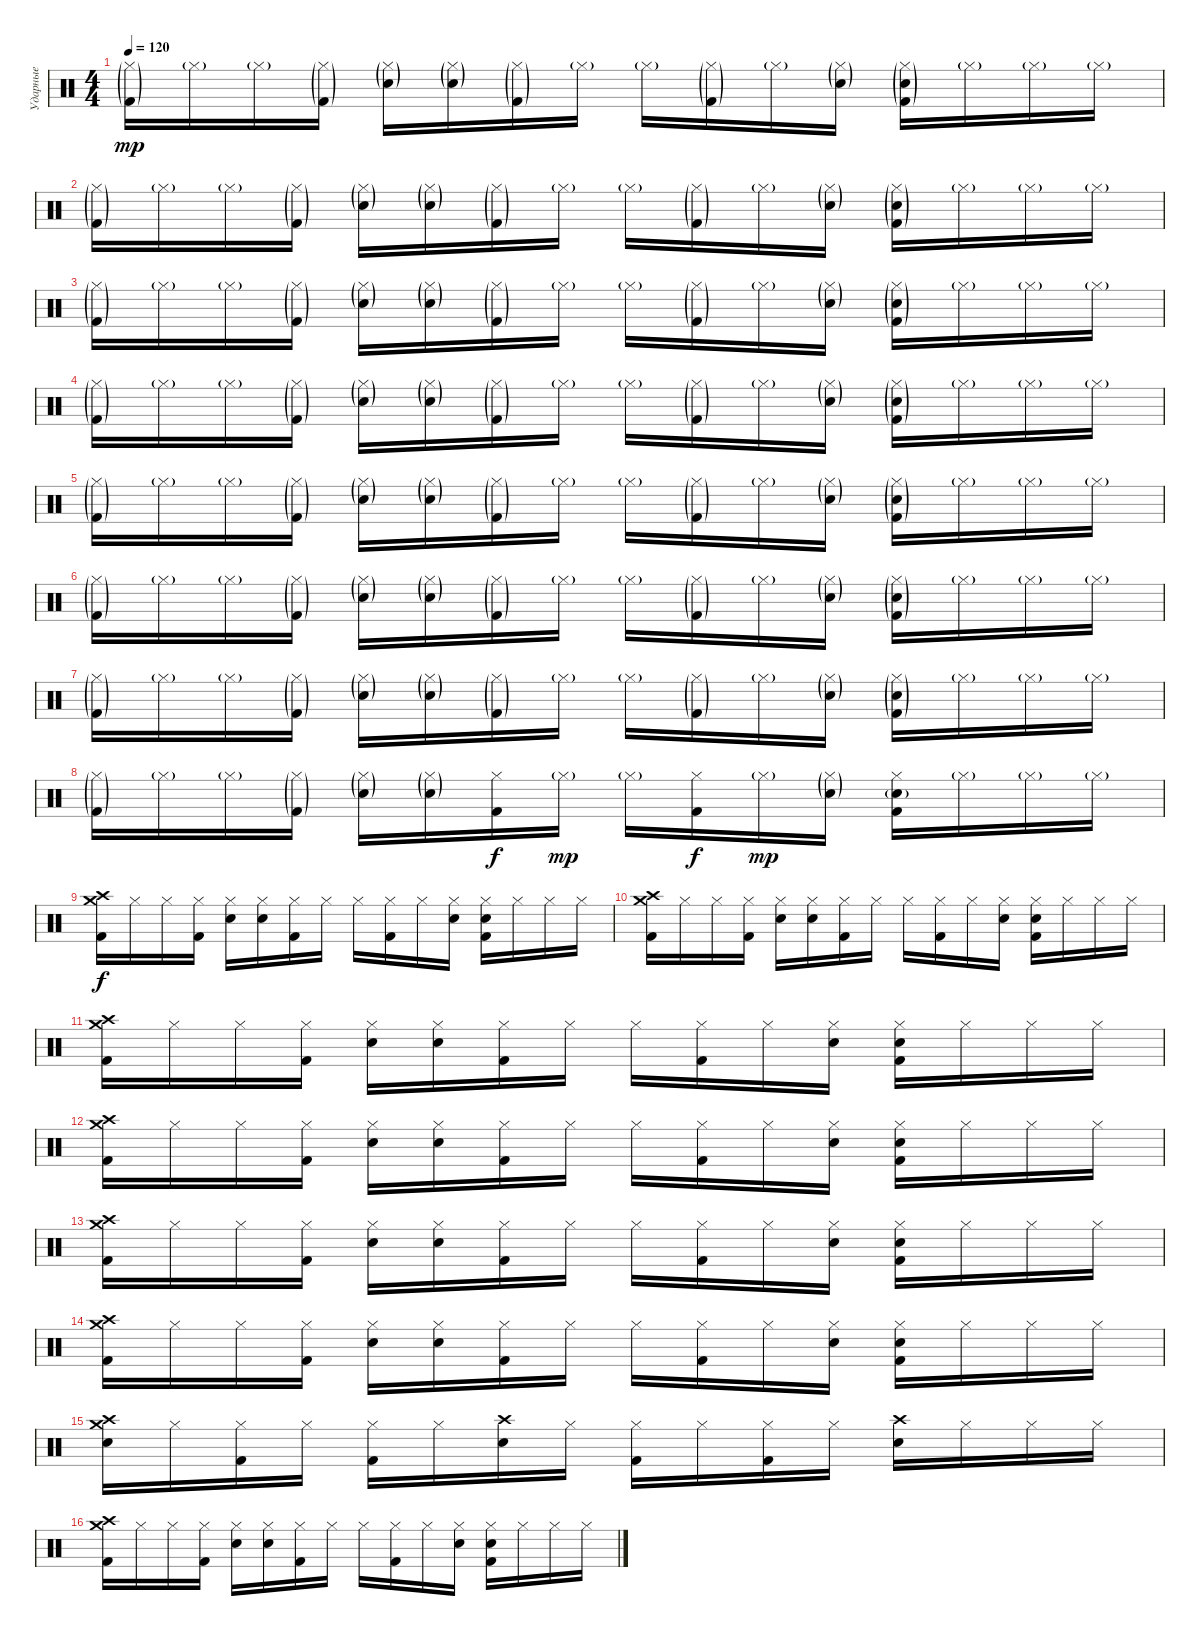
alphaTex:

\track ("Ударные" "Ударные") {instrument percussion}
\staff {score}
\articulation defaults
\ts (4 4)
\tempo 120
\clef neutral
\ks c
("Kick (hit) 2"{g} "Hi-Hat (closed)"{g}).16{dy mp} "Hi-Hat (closed)"{g}.16 "Hi-Hat (closed)"{g}.16 ("Kick (hit) 2"{g} "Hi-Hat (closed)"{g}).16 ("Hi-Hat (closed)"{g} "Electric Snare (hit)"{g}).16 ("Hi-Hat (closed)"{g} "Electric Snare (hit)"{g}).16 ("Kick (hit) 2"{g} "Hi-Hat (closed)"{g}).16 "Hi-Hat (closed)"{g}.16 "Hi-Hat (closed)"{g}.16 ("Kick (hit) 2"{g} "Hi-Hat (closed)"{g}).16 "Hi-Hat (closed)"{g}.16 ("Hi-Hat (closed)"{g} "Electric Snare (hit)"{g}).16 ("Kick (hit) 2"{g} "Hi-Hat (closed)"{g} "Electric Snare (hit)"{g}).16 "Hi-Hat (closed)"{g}.16 "Hi-Hat (closed)"{g}.16 "Hi-Hat (closed)"{g}.16 |
("Kick (hit) 2"{g} "Hi-Hat (closed)"{g}).16 "Hi-Hat (closed)"{g}.16 "Hi-Hat (closed)"{g}.16 ("Kick (hit) 2"{g} "Hi-Hat (closed)"{g}).16 ("Hi-Hat (closed)"{g} "Electric Snare (hit)"{g}).16 ("Hi-Hat (closed)"{g} "Electric Snare (hit)"{g}).16 ("Kick (hit) 2"{g} "Hi-Hat (closed)"{g}).16 "Hi-Hat (closed)"{g}.16 "Hi-Hat (closed)"{g}.16 ("Kick (hit) 2"{g} "Hi-Hat (closed)"{g}).16 "Hi-Hat (closed)"{g}.16 ("Hi-Hat (closed)"{g} "Electric Snare (hit)"{g}).16 ("Kick (hit) 2"{g} "Hi-Hat (closed)"{g} "Electric Snare (hit)"{g}).16 "Hi-Hat (closed)"{g}.16 "Hi-Hat (closed)"{g}.16 "Hi-Hat (closed)"{g}.16 |
("Kick (hit) 2"{g} "Hi-Hat (closed)"{g}).16 "Hi-Hat (closed)"{g}.16 "Hi-Hat (closed)"{g}.16 ("Kick (hit) 2"{g} "Hi-Hat (closed)"{g}).16 ("Hi-Hat (closed)"{g} "Electric Snare (hit)"{g}).16 ("Hi-Hat (closed)"{g} "Electric Snare (hit)"{g}).16 ("Kick (hit) 2"{g} "Hi-Hat (closed)"{g}).16 "Hi-Hat (closed)"{g}.16 "Hi-Hat (closed)"{g}.16 ("Kick (hit) 2"{g} "Hi-Hat (closed)"{g}).16 "Hi-Hat (closed)"{g}.16 ("Hi-Hat (closed)"{g} "Electric Snare (hit)"{g}).16 ("Kick (hit) 2"{g} "Hi-Hat (closed)"{g} "Electric Snare (hit)"{g}).16 "Hi-Hat (closed)"{g}.16 "Hi-Hat (closed)"{g}.16 "Hi-Hat (closed)"{g}.16 |
("Kick (hit) 2"{g} "Hi-Hat (closed)"{g}).16 "Hi-Hat (closed)"{g}.16 "Hi-Hat (closed)"{g}.16 ("Kick (hit) 2"{g} "Hi-Hat (closed)"{g}).16 ("Hi-Hat (closed)"{g} "Electric Snare (hit)"{g}).16 ("Hi-Hat (closed)"{g} "Electric Snare (hit)"{g}).16 ("Kick (hit) 2"{g} "Hi-Hat (closed)"{g}).16 "Hi-Hat (closed)"{g}.16 "Hi-Hat (closed)"{g}.16 ("Kick (hit) 2"{g} "Hi-Hat (closed)"{g}).16 "Hi-Hat (closed)"{g}.16 ("Hi-Hat (closed)"{g} "Electric Snare (hit)"{g}).16 ("Kick (hit) 2"{g} "Hi-Hat (closed)"{g} "Electric Snare (hit)"{g}).16 "Hi-Hat (closed)"{g}.16 "Hi-Hat (closed)"{g}.16 "Hi-Hat (closed)"{g}.16 |
("Kick (hit) 2"{g} "Hi-Hat (closed)"{g}).16 "Hi-Hat (closed)"{g}.16 "Hi-Hat (closed)"{g}.16 ("Kick (hit) 2"{g} "Hi-Hat (closed)"{g}).16 ("Hi-Hat (closed)"{g} "Electric Snare (hit)"{g}).16 ("Hi-Hat (closed)"{g} "Electric Snare (hit)"{g}).16 ("Kick (hit) 2"{g} "Hi-Hat (closed)"{g}).16 "Hi-Hat (closed)"{g}.16 "Hi-Hat (closed)"{g}.16 ("Kick (hit) 2"{g} "Hi-Hat (closed)"{g}).16 "Hi-Hat (closed)"{g}.16 ("Hi-Hat (closed)"{g} "Electric Snare (hit)"{g}).16 ("Kick (hit) 2"{g} "Hi-Hat (closed)"{g} "Electric Snare (hit)"{g}).16 "Hi-Hat (closed)"{g}.16 "Hi-Hat (closed)"{g}.16 "Hi-Hat (closed)"{g}.16 |
("Kick (hit) 2"{g} "Hi-Hat (closed)"{g}).16 "Hi-Hat (closed)"{g}.16 "Hi-Hat (closed)"{g}.16 ("Kick (hit) 2"{g} "Hi-Hat (closed)"{g}).16 ("Hi-Hat (closed)"{g} "Electric Snare (hit)"{g}).16 ("Hi-Hat (closed)"{g} "Electric Snare (hit)"{g}).16 ("Kick (hit) 2"{g} "Hi-Hat (closed)"{g}).16 "Hi-Hat (closed)"{g}.16 "Hi-Hat (closed)"{g}.16 ("Kick (hit) 2"{g} "Hi-Hat (closed)"{g}).16 "Hi-Hat (closed)"{g}.16 ("Hi-Hat (closed)"{g} "Electric Snare (hit)"{g}).16 ("Kick (hit) 2"{g} "Hi-Hat (closed)"{g} "Electric Snare (hit)"{g}).16 "Hi-Hat (closed)"{g}.16 "Hi-Hat (closed)"{g}.16 "Hi-Hat (closed)"{g}.16 |
("Kick (hit) 2"{g} "Hi-Hat (closed)"{g}).16 "Hi-Hat (closed)"{g}.16 "Hi-Hat (closed)"{g}.16 ("Kick (hit) 2"{g} "Hi-Hat (closed)"{g}).16 ("Hi-Hat (closed)"{g} "Electric Snare (hit)"{g}).16 ("Hi-Hat (closed)"{g} "Electric Snare (hit)"{g}).16 ("Kick (hit) 2"{g} "Hi-Hat (closed)"{g}).16 "Hi-Hat (closed)"{g}.16 "Hi-Hat (closed)"{g}.16 ("Kick (hit) 2"{g} "Hi-Hat (closed)"{g}).16 "Hi-Hat (closed)"{g}.16 ("Hi-Hat (closed)"{g} "Electric Snare (hit)"{g}).16 ("Kick (hit) 2"{g} "Hi-Hat (closed)"{g} "Electric Snare (hit)"{g}).16 "Hi-Hat (closed)"{g}.16 "Hi-Hat (closed)"{g}.16 "Hi-Hat (closed)"{g}.16 |
("Kick (hit) 2"{g} "Hi-Hat (closed)"{g}).16 "Hi-Hat (closed)"{g}.16 "Hi-Hat (closed)"{g}.16 ("Kick (hit) 2"{g} "Hi-Hat (closed)"{g}).16 ("Hi-Hat (closed)"{g} "Electric Snare (hit)"{g}).16 ("Hi-Hat (closed)"{g} "Electric Snare (hit)"{g}).16 ("Kick (hit) 2" "Hi-Hat (closed)").16{dy f} "Hi-Hat (closed)"{g}.16{dy mp} "Hi-Hat (closed)"{g}.16 ("Kick (hit) 2" "Hi-Hat (closed)").16{dy f} "Hi-Hat (closed)"{g}.16{dy mp} ("Hi-Hat (closed)"{g} "Electric Snare (hit)"{g}).16 ("Kick (hit) 2" "Hi-Hat (closed)" "Electric Snare (hit)"{g}).16 "Hi-Hat (closed)"{g}.16 "Hi-Hat (closed)"{g}.16 "Hi-Hat (closed)"{g}.16 |
("Kick (hit) 2" "Crash high (hit)" "Crash medium (hit)").16{dy f} "Hi-Hat (closed)".16 "Hi-Hat (closed)".16 ("Kick (hit) 2" "Hi-Hat (closed)").16 ("Hi-Hat (closed)" "Electric Snare (hit)").16 ("Hi-Hat (closed)" "Electric Snare (hit)").16 ("Kick (hit) 2" "Hi-Hat (closed)").16 "Hi-Hat (closed)".16 "Hi-Hat (closed)".16 ("Kick (hit) 2" "Hi-Hat (closed)").16 "Hi-Hat (closed)".16 ("Hi-Hat (closed)" "Electric Snare (hit)").16 ("Kick (hit) 2" "Hi-Hat (closed)" "Electric Snare (hit)").16 "Hi-Hat (closed)".16 "Hi-Hat (closed)".16 "Hi-Hat (closed)".16 |
("Kick (hit) 2" "Crash high (hit)" "Crash medium (hit)").16 "Hi-Hat (closed)".16 "Hi-Hat (closed)".16 ("Kick (hit) 2" "Hi-Hat (closed)").16 ("Hi-Hat (closed)" "Electric Snare (hit)").16 ("Hi-Hat (closed)" "Electric Snare (hit)").16 ("Kick (hit) 2" "Hi-Hat (closed)").16 "Hi-Hat (closed)".16 "Hi-Hat (closed)".16 ("Kick (hit) 2" "Hi-Hat (closed)").16 "Hi-Hat (closed)".16 ("Hi-Hat (closed)" "Electric Snare (hit)").16 ("Kick (hit) 2" "Hi-Hat (closed)" "Electric Snare (hit)").16 "Hi-Hat (closed)".16 "Hi-Hat (closed)".16 "Hi-Hat (closed)".16 |
("Kick (hit) 2" "Crash high (hit)" "Crash medium (hit)").16 "Hi-Hat (closed)".16 "Hi-Hat (closed)".16 ("Kick (hit) 2" "Hi-Hat (closed)").16 ("Hi-Hat (closed)" "Electric Snare (hit)").16 ("Hi-Hat (closed)" "Electric Snare (hit)").16 ("Kick (hit) 2" "Hi-Hat (closed)").16 "Hi-Hat (closed)".16 "Hi-Hat (closed)".16 ("Kick (hit) 2" "Hi-Hat (closed)").16 "Hi-Hat (closed)".16 ("Hi-Hat (closed)" "Electric Snare (hit)").16 ("Kick (hit) 2" "Hi-Hat (closed)" "Electric Snare (hit)").16 "Hi-Hat (closed)".16 "Hi-Hat (closed)".16 "Hi-Hat (closed)".16 |
("Kick (hit) 2" "Crash high (hit)" "Crash medium (hit)").16 "Hi-Hat (closed)".16 "Hi-Hat (closed)".16 ("Kick (hit) 2" "Hi-Hat (closed)").16 ("Hi-Hat (closed)" "Electric Snare (hit)").16 ("Hi-Hat (closed)" "Electric Snare (hit)").16 ("Kick (hit) 2" "Hi-Hat (closed)").16 "Hi-Hat (closed)".16 "Hi-Hat (closed)".16 ("Kick (hit) 2" "Hi-Hat (closed)").16 "Hi-Hat (closed)".16 ("Hi-Hat (closed)" "Electric Snare (hit)").16 ("Kick (hit) 2" "Hi-Hat (closed)" "Electric Snare (hit)").16 "Hi-Hat (closed)".16 "Hi-Hat (closed)".16 "Hi-Hat (closed)".16 |
("Kick (hit) 2" "Crash high (hit)" "Crash medium (hit)").16 "Hi-Hat (closed)".16 "Hi-Hat (closed)".16 ("Kick (hit) 2" "Hi-Hat (closed)").16 ("Hi-Hat (closed)" "Electric Snare (hit)").16 ("Hi-Hat (closed)" "Electric Snare (hit)").16 ("Kick (hit) 2" "Hi-Hat (closed)").16 "Hi-Hat (closed)".16 "Hi-Hat (closed)".16 ("Kick (hit) 2" "Hi-Hat (closed)").16 "Hi-Hat (closed)".16 ("Hi-Hat (closed)" "Electric Snare (hit)").16 ("Kick (hit) 2" "Hi-Hat (closed)" "Electric Snare (hit)").16 "Hi-Hat (closed)".16 "Hi-Hat (closed)".16 "Hi-Hat (closed)".16 |
("Kick (hit) 2" "Crash high (hit)" "Crash medium (hit)").16 "Hi-Hat (closed)".16 "Hi-Hat (closed)".16 ("Kick (hit) 2" "Hi-Hat (closed)").16 ("Hi-Hat (closed)" "Electric Snare (hit)").16 ("Hi-Hat (closed)" "Electric Snare (hit)").16 ("Kick (hit) 2" "Hi-Hat (closed)").16 "Hi-Hat (closed)".16 "Hi-Hat (closed)".16 ("Kick (hit) 2" "Hi-Hat (closed)").16 "Hi-Hat (closed)".16 ("Hi-Hat (closed)" "Electric Snare (hit)").16 ("Kick (hit) 2" "Hi-Hat (closed)" "Electric Snare (hit)").16 "Hi-Hat (closed)".16 "Hi-Hat (closed)".16 "Hi-Hat (closed)".16 |
("Electric Snare (hit)" "Crash high (hit)" "Crash medium (hit)").16 "Hi-Hat (closed)".16 ("Hi-Hat (closed)" "Kick (hit) 2").16 "Hi-Hat (closed)".16 ("Hi-Hat (closed)" "Kick (hit) 2").16 "Hi-Hat (closed)".16 ("Electric Snare (hit)" "Crash high (hit)").16 "Hi-Hat (closed)".16 ("Hi-Hat (closed)" "Kick (hit) 2").16 "Hi-Hat (closed)".16 ("Hi-Hat (closed)" "Kick (hit) 2").16 "Hi-Hat (closed)".16 ("Electric Snare (hit)" "Crash high (hit)").16 "Hi-Hat (closed)".16 "Hi-Hat (closed)".16 "Hi-Hat (closed)".16 |
("Kick (hit) 2" "Crash high (hit)" "Crash medium (hit)").16 "Hi-Hat (closed)".16 "Hi-Hat (closed)".16 ("Kick (hit) 2" "Hi-Hat (closed)").16 ("Hi-Hat (closed)" "Electric Snare (hit)").16 ("Hi-Hat (closed)" "Electric Snare (hit)").16 ("Kick (hit) 2" "Hi-Hat (closed)").16 "Hi-Hat (closed)".16 "Hi-Hat (closed)".16 ("Kick (hit) 2" "Hi-Hat (closed)").16 "Hi-Hat (closed)".16 ("Hi-Hat (closed)" "Electric Snare (hit)").16 ("Kick (hit) 2" "Hi-Hat (closed)" "Electric Snare (hit)").16 "Hi-Hat (closed)".16 "Hi-Hat (closed)".16 "Hi-Hat (closed)".16
